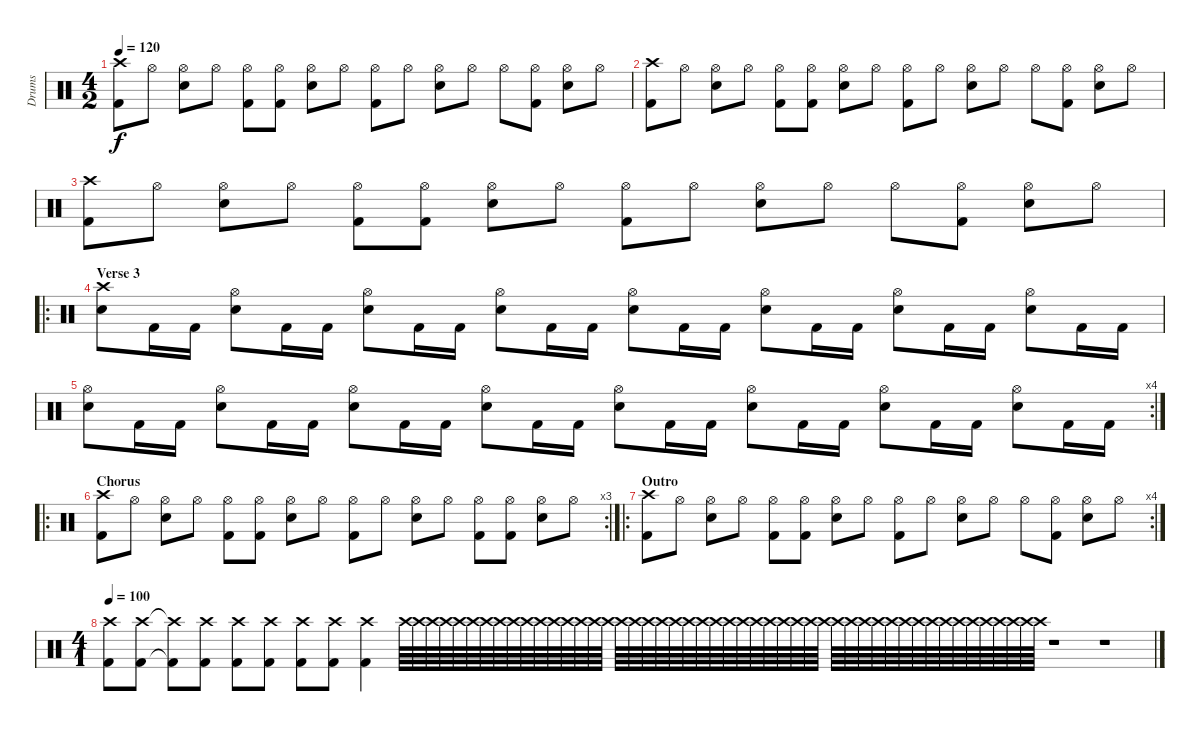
\track ("Drums" "Drums") {instrument percussion}
\staff {score}
\articulation defaults
\ts (4 2)
\tempo 120
\clef neutral
\ks c
("Crash high (hit)" "Kick (hit) 2").8{dy f} "Hi-Hat (open)".8 ("Hi-Hat (open)" "Electric Snare (hit)").8 "Hi-Hat (open)".8 ("Hi-Hat (open)" "Kick (hit) 2").8 ("Hi-Hat (open)" "Kick (hit) 2").8 ("Hi-Hat (open)" "Electric Snare (hit)").8 "Hi-Hat (open)".8 ("Hi-Hat (open)" "Kick (hit) 2").8 "Hi-Hat (open)".8 ("Hi-Hat (open)" "Electric Snare (hit)").8 "Hi-Hat (open)".8 "Hi-Hat (open)".8 ("Hi-Hat (open)" "Kick (hit) 2").8 ("Hi-Hat (open)" "Electric Snare (hit)").8 "Hi-Hat (open)".8 |
("Crash high (hit)" "Kick (hit) 2").8 "Hi-Hat (open)".8 ("Hi-Hat (open)" "Electric Snare (hit)").8 "Hi-Hat (open)".8 ("Hi-Hat (open)" "Kick (hit) 2").8 ("Hi-Hat (open)" "Kick (hit) 2").8 ("Hi-Hat (open)" "Electric Snare (hit)").8 "Hi-Hat (open)".8 ("Hi-Hat (open)" "Kick (hit) 2").8 "Hi-Hat (open)".8 ("Hi-Hat (open)" "Electric Snare (hit)").8 "Hi-Hat (open)".8 "Hi-Hat (open)".8 ("Hi-Hat (open)" "Kick (hit) 2").8 ("Hi-Hat (open)" "Electric Snare (hit)").8 "Hi-Hat (open)".8 |
("Crash high (hit)" "Kick (hit) 2").8 "Hi-Hat (open)".8 ("Hi-Hat (open)" "Electric Snare (hit)").8 "Hi-Hat (open)".8 ("Hi-Hat (open)" "Kick (hit) 2").8 ("Hi-Hat (open)" "Kick (hit) 2").8 ("Hi-Hat (open)" "Electric Snare (hit)").8 "Hi-Hat (open)".8 ("Hi-Hat (open)" "Kick (hit) 2").8 "Hi-Hat (open)".8 ("Hi-Hat (open)" "Electric Snare (hit)").8 "Hi-Hat (open)".8 "Hi-Hat (open)".8 ("Hi-Hat (open)" "Kick (hit) 2").8 ("Hi-Hat (open)" "Electric Snare (hit)").8 "Hi-Hat (open)".8 |
\ro
\section ("" "Verse 3")
("Crash high (hit)" "Electric Snare (hit)").8 "Kick (hit) 2".16 "Kick (hit) 2".16 ("Hi-Hat (open)" "Electric Snare (hit)").8 "Kick (hit) 2".16 "Kick (hit) 2".16 ("Hi-Hat (open)" "Electric Snare (hit)").8 "Kick (hit) 2".16 "Kick (hit) 2".16 ("Hi-Hat (open)" "Electric Snare (hit)").8 "Kick (hit) 2".16 "Kick (hit) 2".16 ("Hi-Hat (open)" "Electric Snare (hit)").8 "Kick (hit) 2".16 "Kick (hit) 2".16 ("Hi-Hat (open)" "Electric Snare (hit)").8 "Kick (hit) 2".16 "Kick (hit) 2".16 ("Hi-Hat (open)" "Electric Snare (hit)").8 "Kick (hit) 2".16 "Kick (hit) 2".16 ("Hi-Hat (open)" "Electric Snare (hit)").8 "Kick (hit) 2".16 "Kick (hit) 2".16 |
\rc 4
("Hi-Hat (open)" "Electric Snare (hit)").8 "Kick (hit) 2".16 "Kick (hit) 2".16 ("Hi-Hat (open)" "Electric Snare (hit)").8 "Kick (hit) 2".16 "Kick (hit) 2".16 ("Hi-Hat (open)" "Electric Snare (hit)").8 "Kick (hit) 2".16 "Kick (hit) 2".16 ("Hi-Hat (open)" "Electric Snare (hit)").8 "Kick (hit) 2".16 "Kick (hit) 2".16 ("Hi-Hat (open)" "Electric Snare (hit)").8 "Kick (hit) 2".16 "Kick (hit) 2".16 ("Hi-Hat (open)" "Electric Snare (hit)").8 "Kick (hit) 2".16 "Kick (hit) 2".16 ("Hi-Hat (open)" "Electric Snare (hit)").8 "Kick (hit) 2".16 "Kick (hit) 2".16 ("Hi-Hat (open)" "Electric Snare (hit)").8 "Kick (hit) 2".16 "Kick (hit) 2".16 |
\ro
\rc 3
\section ("" "Chorus")
("Crash high (hit)" "Kick (hit) 2").8 "Hi-Hat (open)".8 ("Hi-Hat (open)" "Electric Snare (hit)").8 "Hi-Hat (open)".8 ("Hi-Hat (open)" "Kick (hit) 2").8 ("Hi-Hat (open)" "Kick (hit) 2").8 ("Hi-Hat (open)" "Electric Snare (hit)").8 "Hi-Hat (open)".8 ("Hi-Hat (open)" "Kick (hit) 2").8 "Hi-Hat (open)".8 ("Hi-Hat (open)" "Electric Snare (hit)").8 "Hi-Hat (open)".8 ("Hi-Hat (open)" "Kick (hit) 2").8 ("Hi-Hat (open)" "Kick (hit) 2").8 ("Hi-Hat (open)" "Electric Snare (hit)").8 "Hi-Hat (open)".8 |
\ro
\rc 4
\section ("" "Outro")
("Crash high (hit)" "Kick (hit) 2").8 "Hi-Hat (open)".8 ("Hi-Hat (open)" "Electric Snare (hit)").8 "Hi-Hat (open)".8 ("Hi-Hat (open)" "Kick (hit) 2").8 ("Hi-Hat (open)" "Kick (hit) 2").8 ("Hi-Hat (open)" "Electric Snare (hit)").8 "Hi-Hat (open)".8 ("Hi-Hat (open)" "Kick (hit) 2").8 "Hi-Hat (open)".8 ("Hi-Hat (open)" "Electric Snare (hit)").8 "Hi-Hat (open)".8 "Hi-Hat (open)".8 ("Hi-Hat (open)" "Kick (hit) 2").8 ("Hi-Hat (open)" "Electric Snare (hit)").8 "Hi-Hat (open)".8 |
\ts (4 1)
\tempo 100
("Crash high (hit)" "Kick (hit) 2").8 ("Crash high (hit)" "Kick (hit) 2").8 ("Crash high (hit)"{t} "Kick (hit) 2"{t}).8 ("Crash high (hit)" "Kick (hit) 2").8 ("Crash high (hit)" "Kick (hit) 2").8 ("Crash high (hit)" "Kick (hit) 2").8 ("Crash high (hit)" "Kick (hit) 2").8 ("Crash high (hit)" "Kick (hit) 2").8 ("Crash high (hit)" "Kick (hit) 2").4 "Crash high (hit)".64 "Crash high (hit)".64 "Crash high (hit)".64 "Crash high (hit)".64 "Crash high (hit)".64 "Crash high (hit)".64 "Crash high (hit)".64 "Crash high (hit)".64 "Crash high (hit)".64 "Crash high (hit)".64 "Crash high (hit)".64 "Crash high (hit)".64 "Crash high (hit)".64 "Crash high (hit)".64 "Crash high (hit)".64 "Crash high (hit)".64 "Crash high (hit)".64 "Crash high (hit)".64 "Crash high (hit)".64 "Crash high (hit)".64 "Crash high (hit)".64 "Crash high (hit)".64 "Crash high (hit)".64 "Crash high (hit)".64 "Crash high (hit)".64 "Crash high (hit)".64 "Crash high (hit)".64 "Crash high (hit)".64 "Crash high (hit)".64 "Crash high (hit)".64 "Crash high (hit)".64 "Crash high (hit)".64 "Crash high (hit)".64 "Crash high (hit)".64 "Crash high (hit)".64 "Crash high (hit)".64 "Crash high (hit)".64 "Crash high (hit)".64 "Crash high (hit)".64 "Crash high (hit)".64 "Crash high (hit)".64 "Crash high (hit)".64 "Crash high (hit)".64 "Crash high (hit)".64 "Crash high (hit)".64 "Crash high (hit)".64 "Crash high (hit)".64 "Crash high (hit)".64 r.1 r.1
